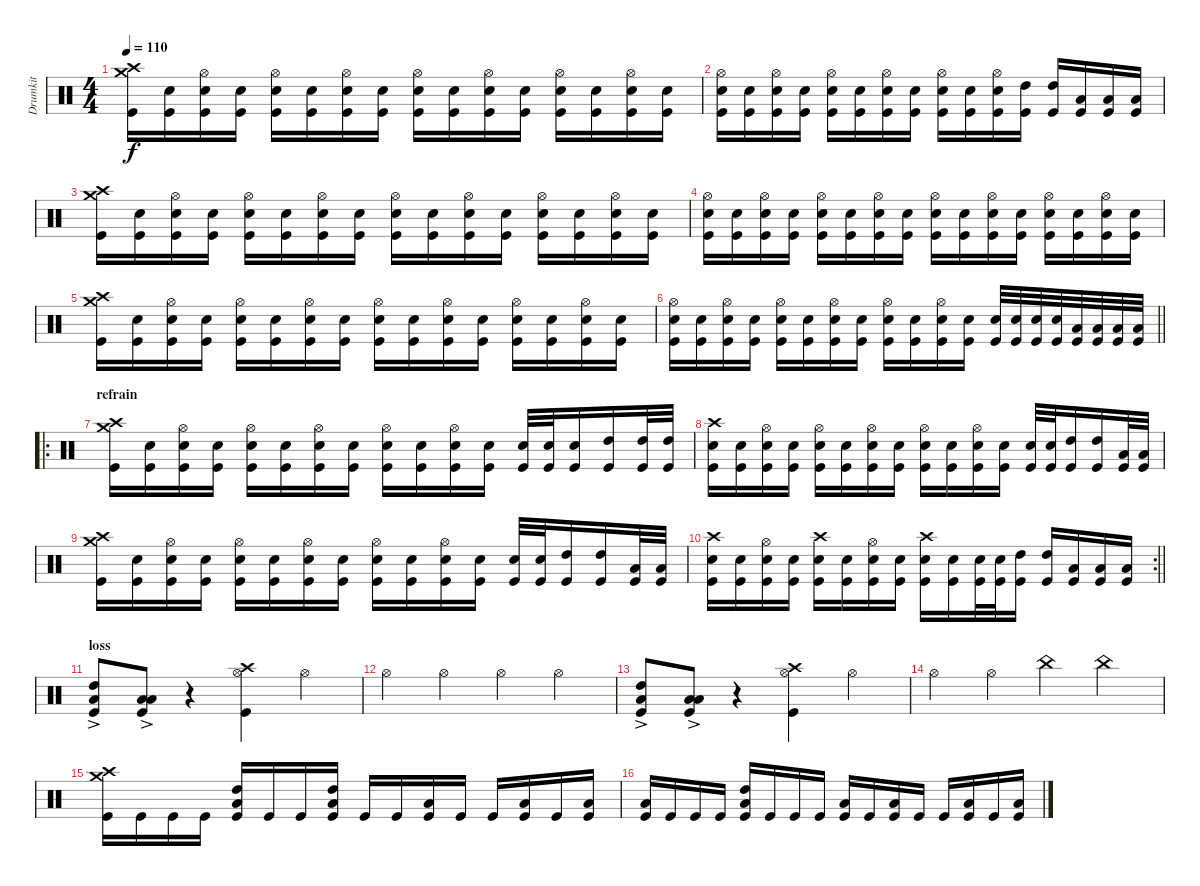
\track ("Drumkit" "Drumkit") {instrument percussion}
\staff {score}
\articulation defaults
\ts (4 4)
\tempo 110
\clef neutral
\ks c
("Crash high (hit)" "Crash medium (hit)" "Kick (hit)").16{dy f} ("Snare (hit) 2" "Kick (hit)").16 ("Hi-Hat (open)" "Snare (hit) 2" "Kick (hit)").16 ("Snare (hit) 2" "Kick (hit)").16 ("Hi-Hat (open)" "Snare (hit) 2" "Kick (hit)").16 ("Snare (hit) 2" "Kick (hit)").16 ("Hi-Hat (open)" "Snare (hit) 2" "Kick (hit)").16 ("Snare (hit) 2" "Kick (hit)").16 ("Hi-Hat (open)" "Snare (hit) 2" "Kick (hit)").16 ("Snare (hit) 2" "Kick (hit)").16 ("Hi-Hat (open)" "Snare (hit) 2" "Kick (hit)").16 ("Snare (hit) 2" "Kick (hit)").16 ("Hi-Hat (open)" "Snare (hit) 2" "Kick (hit)").16 ("Snare (hit) 2" "Kick (hit)").16 ("Hi-Hat (open)" "Snare (hit) 2" "Kick (hit)").16 ("Snare (hit) 2" "Kick (hit)").16 |
("Hi-Hat (open)" "Snare (hit) 2" "Kick (hit)").16 ("Snare (hit) 2" "Kick (hit)").16 ("Hi-Hat (open)" "Snare (hit) 2" "Kick (hit)").16 ("Snare (hit) 2" "Kick (hit)").16 ("Hi-Hat (open)" "Snare (hit) 2" "Kick (hit)").16 ("Snare (hit) 2" "Kick (hit)").16 ("Hi-Hat (open)" "Snare (hit) 2" "Kick (hit)").16 ("Snare (hit) 2" "Kick (hit)").16 ("Hi-Hat (open)" "Snare (hit) 2" "Kick (hit)").16 ("Snare (hit) 2" "Kick (hit)").16 ("Hi-Hat (open)" "Snare (hit) 2" "Kick (hit)").16 ("High Tom (hit)" "Kick (hit)").16 ("High Tom (hit)" "Kick (hit)").16 ("Low Tom (hit)" "Kick (hit)").16 ("Low Tom (hit)" "Kick (hit)").16 ("Low Tom (hit)" "Kick (hit)").16 |
("Crash high (hit)" "Crash medium (hit)" "Kick (hit)").16 ("Snare (hit) 2" "Kick (hit)").16 ("Hi-Hat (open)" "Snare (hit) 2" "Kick (hit)").16 ("Snare (hit) 2" "Kick (hit)").16 ("Hi-Hat (open)" "Snare (hit) 2" "Kick (hit)").16 ("Snare (hit) 2" "Kick (hit)").16 ("Hi-Hat (open)" "Snare (hit) 2" "Kick (hit)").16 ("Snare (hit) 2" "Kick (hit)").16 ("Hi-Hat (open)" "Snare (hit) 2" "Kick (hit)").16 ("Snare (hit) 2" "Kick (hit)").16 ("Hi-Hat (open)" "Snare (hit) 2" "Kick (hit)").16 ("Snare (hit) 2" "Kick (hit)").16 ("Hi-Hat (open)" "Snare (hit) 2" "Kick (hit)").16 ("Snare (hit) 2" "Kick (hit)").16 ("Hi-Hat (open)" "Snare (hit) 2" "Kick (hit)").16 ("Snare (hit) 2" "Kick (hit)").16 |
("Hi-Hat (open)" "Snare (hit) 2" "Kick (hit)").16 ("Snare (hit) 2" "Kick (hit)").16 ("Hi-Hat (open)" "Snare (hit) 2" "Kick (hit)").16 ("Snare (hit) 2" "Kick (hit)").16 ("Hi-Hat (open)" "Snare (hit) 2" "Kick (hit)").16 ("Snare (hit) 2" "Kick (hit)").16 ("Hi-Hat (open)" "Snare (hit) 2" "Kick (hit)").16 ("Snare (hit) 2" "Kick (hit)").16 ("Hi-Hat (open)" "Snare (hit) 2" "Kick (hit)").16 ("Snare (hit) 2" "Kick (hit)").16 ("Hi-Hat (open)" "Snare (hit) 2" "Kick (hit)").16 ("Snare (hit) 2" "Kick (hit)").16 ("Hi-Hat (open)" "Snare (hit) 2" "Kick (hit)").16 ("Snare (hit) 2" "Kick (hit)").16 ("Hi-Hat (open)" "Snare (hit) 2" "Kick (hit)").16 ("Snare (hit) 2" "Kick (hit)").16 |
("Crash high (hit)" "Crash medium (hit)" "Kick (hit)").16 ("Snare (hit) 2" "Kick (hit)").16 ("Hi-Hat (open)" "Snare (hit) 2" "Kick (hit)").16 ("Snare (hit) 2" "Kick (hit)").16 ("Hi-Hat (open)" "Snare (hit) 2" "Kick (hit)").16 ("Snare (hit) 2" "Kick (hit)").16 ("Hi-Hat (open)" "Snare (hit) 2" "Kick (hit)").16 ("Snare (hit) 2" "Kick (hit)").16 ("Hi-Hat (open)" "Snare (hit) 2" "Kick (hit)").16 ("Snare (hit) 2" "Kick (hit)").16 ("Hi-Hat (open)" "Snare (hit) 2" "Kick (hit)").16 ("Snare (hit) 2" "Kick (hit)").16 ("Hi-Hat (open)" "Snare (hit) 2" "Kick (hit)").16 ("Snare (hit) 2" "Kick (hit)").16 ("Hi-Hat (open)" "Snare (hit) 2" "Kick (hit)").16 ("Snare (hit) 2" "Kick (hit)").16 |
\barLineRight lightlight
("Hi-Hat (open)" "Snare (hit) 2" "Kick (hit)").16 ("Snare (hit) 2" "Kick (hit)").16 ("Hi-Hat (open)" "Snare (hit) 2" "Kick (hit)").16 ("Snare (hit) 2" "Kick (hit)").16 ("Hi-Hat (open)" "Snare (hit) 2" "Kick (hit)").16 ("Snare (hit) 2" "Kick (hit)").16 ("Hi-Hat (open)" "Snare (hit) 2" "Kick (hit)").16 ("Snare (hit) 2" "Kick (hit)").16 ("Hi-Hat (open)" "Snare (hit) 2" "Kick (hit)").16 ("Snare (hit) 2" "Kick (hit)").16 ("Hi-Hat (open)" "Snare (hit) 2" "Kick (hit)").16 ("Snare (hit) 2" "Kick (hit)").16 ("Snare (hit) 2" "Kick (hit)").32 ("Snare (hit) 2" "Kick (hit)").32 ("Snare (hit) 2" "Kick (hit)").32 ("Snare (hit) 2" "Kick (hit)").32 ("Low Tom (hit)" "Kick (hit)").32 ("Low Tom (hit)" "Kick (hit)").32 ("Low Tom (hit)" "Kick (hit)").32 ("Low Tom (hit)" "Kick (hit)").32 |
\ro
\section ("" "refrain")
("Crash high (hit)" "Crash medium (hit)" "Kick (hit)").16 ("Snare (hit) 2" "Kick (hit)").16 ("Hi-Hat (open)" "Snare (hit) 2" "Kick (hit)").16 ("Snare (hit) 2" "Kick (hit)").16 ("Hi-Hat (open)" "Snare (hit) 2" "Kick (hit)").16 ("Snare (hit) 2" "Kick (hit)").16 ("Hi-Hat (open)" "Snare (hit) 2" "Kick (hit)").16 ("Snare (hit) 2" "Kick (hit)").16 ("Hi-Hat (open)" "Snare (hit) 2" "Kick (hit)").16 ("Snare (hit) 2" "Kick (hit)").16 ("Hi-Hat (open)" "Snare (hit) 2" "Kick (hit)").16 ("Snare (hit) 2" "Kick (hit)").16 ("Snare (hit) 2" "Kick (hit)").32 ("Snare (hit) 2" "Kick (hit)").32 ("Snare (hit) 2" "Kick (hit)").16 ("High Tom (hit)" "Kick (hit)").16 ("High Tom (hit)" "Kick (hit)").32 ("High Tom (hit)" "Kick (hit)").32 |
("Crash high (hit)" "Snare (hit) 2" "Kick (hit)").16 ("Snare (hit) 2" "Kick (hit)").16 ("Hi-Hat (open)" "Snare (hit) 2" "Kick (hit)").16 ("Snare (hit) 2" "Kick (hit)").16 ("Hi-Hat (open)" "Snare (hit) 2" "Kick (hit)").16 ("Snare (hit) 2" "Kick (hit)").16 ("Hi-Hat (open)" "Snare (hit) 2" "Kick (hit)").16 ("Snare (hit) 2" "Kick (hit)").16 ("Hi-Hat (open)" "Snare (hit) 2" "Kick (hit)").16 ("Snare (hit) 2" "Kick (hit)").16 ("Hi-Hat (open)" "Snare (hit) 2" "Kick (hit)").16 ("Snare (hit) 2" "Kick (hit)").16 ("Snare (hit) 2" "Kick (hit)").32 ("Snare (hit) 2" "Kick (hit)").32 ("High Tom (hit)" "Kick (hit)").16 ("High Tom (hit)" "Kick (hit)").16 ("Low Floor Tom (hit)" "Kick (hit)").32 ("Low Floor Tom (hit)" "Kick (hit)").32 |
("Crash high (hit)" "Crash medium (hit)" "Kick (hit)").16 ("Snare (hit) 2" "Kick (hit)").16 ("Hi-Hat (open)" "Snare (hit) 2" "Kick (hit)").16 ("Snare (hit) 2" "Kick (hit)").16 ("Hi-Hat (open)" "Snare (hit) 2" "Kick (hit)").16 ("Snare (hit) 2" "Kick (hit)").16 ("Hi-Hat (open)" "Snare (hit) 2" "Kick (hit)").16 ("Snare (hit) 2" "Kick (hit)").16 ("Hi-Hat (open)" "Snare (hit) 2" "Kick (hit)").16 ("Snare (hit) 2" "Kick (hit)").16 ("Hi-Hat (open)" "Snare (hit) 2" "Kick (hit)").16 ("Snare (hit) 2" "Kick (hit)").16 ("Snare (hit) 2" "Kick (hit)").32 ("Snare (hit) 2" "Kick (hit)").32 ("High Tom (hit)" "Kick (hit)").16 ("High Tom (hit)" "Kick (hit)").16 ("Low Tom (hit)" "Kick (hit)").32 ("Low Tom (hit)" "Kick (hit)").32 |
\rc 2
\barLineRight lightlight
("Crash high (hit)" "Snare (hit) 2" "Kick (hit)").16 ("Snare (hit) 2" "Kick (hit)").16 ("Hi-Hat (open)" "Snare (hit) 2" "Kick (hit)").16 ("Snare (hit) 2" "Kick (hit)").16 ("Crash high (hit)" "Snare (hit) 2" "Kick (hit)").16 ("Snare (hit) 2" "Kick (hit)").16 ("Hi-Hat (open)" "Snare (hit) 2" "Kick (hit)").16 ("Snare (hit) 2" "Kick (hit)").16 ("Crash high (hit)" "Snare (hit) 2" "Kick (hit)").16 ("Snare (hit) 2" "Kick (hit)").16 ("Snare (hit) 2" "Kick (hit)").32 ("Snare (hit) 2" "Kick (hit)").32 ("High Tom (hit)" "Kick (hit)").16 ("High Tom (hit)" "Kick (hit)").16 ("Low Tom (hit)" "Kick (hit)").16 ("Low Tom (hit)" "Kick (hit)").16 ("Low Tom (hit)" "Kick (hit)").16 |
\section ("" "loss")
("High Tom (hit)"{ac} "Low Floor Tom (hit)"{ac} "Kick (hit)").8 ("Low Tom (hit)"{ac} "Low Floor Tom (hit)"{ac} "Kick (hit)").8 r.4 ("Crash high (hit)" "Hi-Hat (open)" "Kick (hit)").4 "Hi-Hat (open)".4 |
"Hi-Hat (open)".4 "Hi-Hat (open)".4 "Hi-Hat (open)".4 "Hi-Hat (open)".4 |
("High Tom (hit)"{ac} "Low Floor Tom (hit)"{ac} "Kick (hit)").8 ("Low Tom (hit)"{ac} "Low Floor Tom (hit)"{ac} "Kick (hit)").8 r.4 ("Crash high (hit)" "Hi-Hat (open)" "Kick (hit)").4 "Hi-Hat (open)".4 |
"Hi-Hat (open)".4 "Hi-Hat (open)".4 "China (hit)".4 "China (hit)".4 |
("Crash high (hit)" "Crash medium (hit)" "Kick (hit)").16 "Kick (hit)".16 "Kick (hit)".16 "Kick (hit)".16 ("High Tom (hit)" "Low Tom (hit)" "Kick (hit)").16 "Kick (hit)".16 "Kick (hit)".16 ("High Tom (hit)" "Low Tom (hit)" "Kick (hit)").16 "Kick (hit)".16 "Kick (hit)".16 ("Low Floor Tom (hit)" "Kick (hit)").16 "Kick (hit)".16 "Kick (hit)".16 ("Low Tom (hit)" "Kick (hit)").16 "Kick (hit)".16 ("Low Tom (hit)" "Kick (hit)").16 |
("Low Tom (hit)" "Kick (hit)").16 "Kick (hit)".16 "Kick (hit)".16 "Kick (hit)".16 ("High Tom (hit)" "Low Tom (hit)" "Kick (hit)").16 "Kick (hit)".16 "Kick (hit)".16 "Kick (hit)".16 ("Low Floor Tom (hit)" "Kick (hit)").16 "Kick (hit)".16 ("Low Floor Tom (hit)" "Kick (hit)").16 "Kick (hit)".16 "Kick (hit)".16 ("Low Tom (hit)" "Kick (hit)").16 "Kick (hit)".16 ("Low Tom (hit)" "Kick (hit)").16
